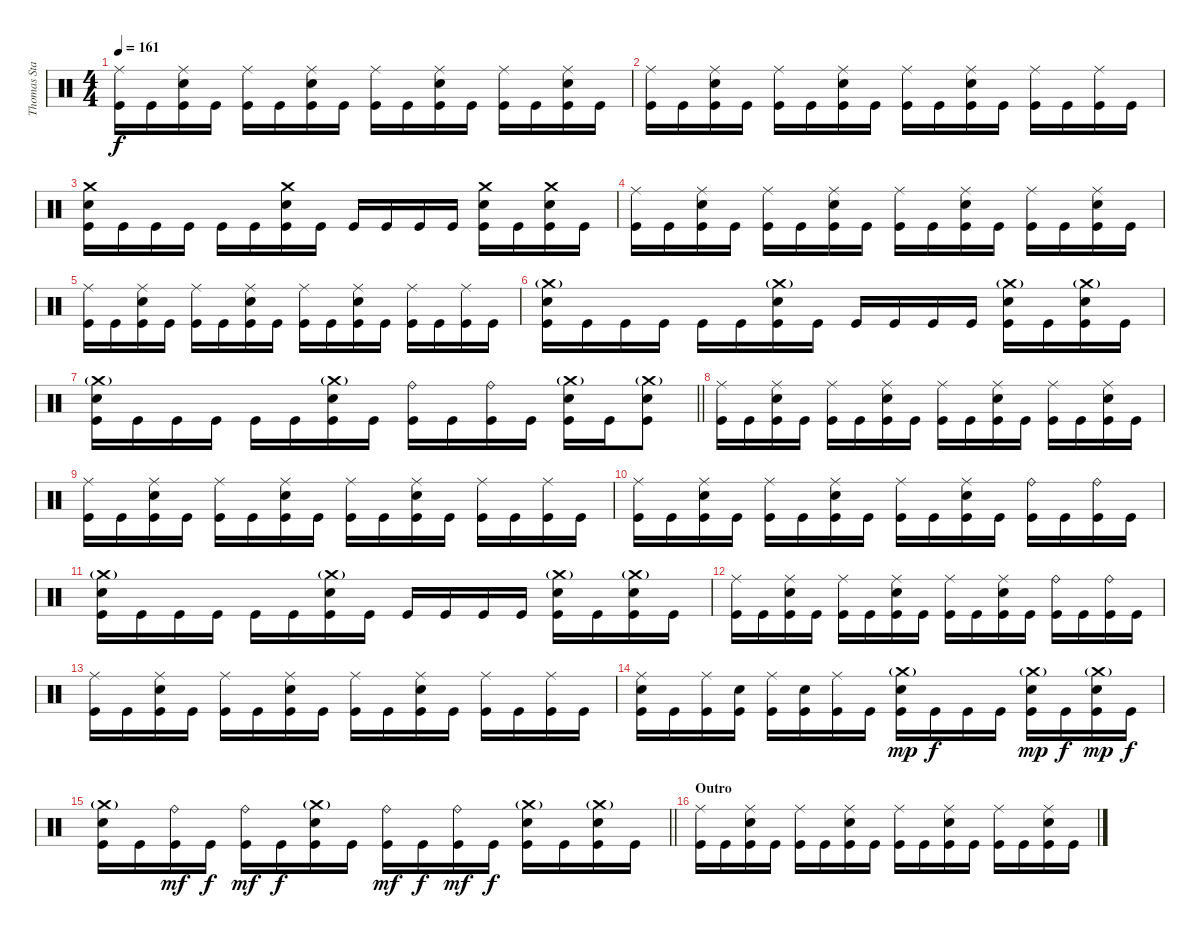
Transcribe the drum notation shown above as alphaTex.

\track ("Thomas Stauch" "Thomas Sta") {instrument percussion}
\staff {score}
\articulation defaults
\ts (4 4)
\tempo 161
\clef neutral
\ks c
("Ride (middle)" "Kick (hit)").16{dy f} "Kick (hit)".16 ("Ride (middle)" "Electric Snare (hit)" "Kick (hit)").16 "Kick (hit)".16 ("Ride (middle)" "Kick (hit)").16 "Kick (hit)".16 ("Ride (middle)" "Electric Snare (hit)" "Kick (hit)").16 "Kick (hit)".16 ("Ride (middle)" "Kick (hit)").16 "Kick (hit)".16 ("Ride (middle)" "Electric Snare (hit)" "Kick (hit)").16 "Kick (hit)".16 ("Ride (middle)" "Kick (hit)").16 "Kick (hit)".16 ("Ride (middle)" "Electric Snare (hit)" "Kick (hit)").16 "Kick (hit)".16 |
("Ride (middle)" "Kick (hit)").16 "Kick (hit)".16 ("Ride (middle)" "Electric Snare (hit)" "Kick (hit)").16 "Kick (hit)".16 ("Ride (middle)" "Kick (hit)").16 "Kick (hit)".16 ("Ride (middle)" "Electric Snare (hit)" "Kick (hit)").16 "Kick (hit)".16 ("Ride (middle)" "Kick (hit)").16 "Kick (hit)".16 ("Ride (middle)" "Electric Snare (hit)" "Kick (hit)").16 "Kick (hit)".16 ("Ride (middle)" "Kick (hit)").16 "Kick (hit)".16 ("Ride (middle)" "Kick (hit)").16 "Kick (hit)".16 |
("Crash medium (hit)" "Electric Snare (hit)" "Kick (hit)").16 "Kick (hit)".16 "Kick (hit)".16 "Kick (hit)".16 "Kick (hit)".16 "Kick (hit)".16 ("Crash medium (hit)" "Electric Snare (hit)" "Kick (hit)").16 "Kick (hit)".16 "Kick (hit)".16 "Kick (hit)".16 "Kick (hit)".16 "Kick (hit)".16 ("Crash medium (hit)" "Electric Snare (hit)" "Kick (hit)").16 "Kick (hit)".16 ("Crash medium (hit)" "Electric Snare (hit)" "Kick (hit)").16 "Kick (hit)".16 |
("Ride (middle)" "Kick (hit)").16 "Kick (hit)".16 ("Ride (middle)" "Electric Snare (hit)" "Kick (hit)").16 "Kick (hit)".16 ("Ride (middle)" "Kick (hit)").16 "Kick (hit)".16 ("Ride (middle)" "Electric Snare (hit)" "Kick (hit)").16 "Kick (hit)".16 ("Ride (middle)" "Kick (hit)").16 "Kick (hit)".16 ("Ride (middle)" "Electric Snare (hit)" "Kick (hit)").16 "Kick (hit)".16 ("Ride (middle)" "Kick (hit)").16 "Kick (hit)".16 ("Ride (middle)" "Electric Snare (hit)" "Kick (hit)").16 "Kick (hit)".16 |
("Ride (middle)" "Kick (hit)").16 "Kick (hit)".16 ("Ride (middle)" "Electric Snare (hit)" "Kick (hit)").16 "Kick (hit)".16 ("Ride (middle)" "Kick (hit)").16 "Kick (hit)".16 ("Ride (middle)" "Electric Snare (hit)" "Kick (hit)").16 "Kick (hit)".16 ("Ride (middle)" "Kick (hit)").16 "Kick (hit)".16 ("Ride (middle)" "Electric Snare (hit)" "Kick (hit)").16 "Kick (hit)".16 ("Ride (middle)" "Kick (hit)").16 "Kick (hit)".16 ("Ride (middle)" "Kick (hit)").16 "Kick (hit)".16 |
("Crash medium (hit)"{g} "Electric Snare (hit)" "Kick (hit)").16 "Kick (hit)".16 "Kick (hit)".16 "Kick (hit)".16 "Kick (hit)".16 "Kick (hit)".16 ("Crash medium (hit)"{g} "Electric Snare (hit)" "Kick (hit)").16 "Kick (hit)".16 "Kick (hit)".16 "Kick (hit)".16 "Kick (hit)".16 "Kick (hit)".16 ("Crash medium (hit)"{g} "Electric Snare (hit)" "Kick (hit)").16 "Kick (hit)".16 ("Crash medium (hit)"{g} "Electric Snare (hit)" "Kick (hit)").16 "Kick (hit)".16 |
\barLineRight lightlight
("Crash medium (hit)"{g} "Electric Snare (hit)" "Kick (hit)").16 "Kick (hit)".16 "Kick (hit)".16 "Kick (hit)".16 "Kick (hit)".16 "Kick (hit)".16 ("Crash medium (hit)"{g} "Electric Snare (hit)" "Kick (hit)").16 "Kick (hit)".16 ("Ride (bell)" "Kick (hit)").16 "Kick (hit)".16 ("Ride (bell)" "Kick (hit)").16 "Kick (hit)".16 ("Crash medium (hit)"{g} "Electric Snare (hit)" "Kick (hit)").16 "Kick (hit)".16 ("Crash medium (hit)"{g} "Electric Snare (hit)" "Kick (hit)").8 |
("Ride (middle)" "Kick (hit)").16 "Kick (hit)".16 ("Ride (middle)" "Electric Snare (hit)" "Kick (hit)").16 "Kick (hit)".16 ("Ride (middle)" "Kick (hit)").16 "Kick (hit)".16 ("Ride (middle)" "Electric Snare (hit)" "Kick (hit)").16 "Kick (hit)".16 ("Ride (middle)" "Kick (hit)").16 "Kick (hit)".16 ("Ride (middle)" "Electric Snare (hit)" "Kick (hit)").16 "Kick (hit)".16 ("Ride (middle)" "Kick (hit)").16 "Kick (hit)".16 ("Ride (middle)" "Electric Snare (hit)" "Kick (hit)").16 "Kick (hit)".16 |
("Ride (middle)" "Kick (hit)").16 "Kick (hit)".16 ("Ride (middle)" "Electric Snare (hit)" "Kick (hit)").16 "Kick (hit)".16 ("Ride (middle)" "Kick (hit)").16 "Kick (hit)".16 ("Ride (middle)" "Electric Snare (hit)" "Kick (hit)").16 "Kick (hit)".16 ("Ride (middle)" "Kick (hit)").16 "Kick (hit)".16 ("Ride (middle)" "Electric Snare (hit)" "Kick (hit)").16 "Kick (hit)".16 ("Ride (middle)" "Kick (hit)").16 "Kick (hit)".16 ("Ride (middle)" "Kick (hit)").16 "Kick (hit)".16 |
("Ride (middle)" "Kick (hit)").16 "Kick (hit)".16 ("Ride (middle)" "Electric Snare (hit)" "Kick (hit)").16 "Kick (hit)".16 ("Ride (middle)" "Kick (hit)").16 "Kick (hit)".16 ("Ride (middle)" "Electric Snare (hit)" "Kick (hit)").16 "Kick (hit)".16 ("Ride (middle)" "Kick (hit)").16 "Kick (hit)".16 ("Ride (middle)" "Electric Snare (hit)" "Kick (hit)").16 "Kick (hit)".16 ("Ride (bell)" "Kick (hit)").16 "Kick (hit)".16 ("Ride (bell)" "Kick (hit)").16 "Kick (hit)".16 |
("Crash medium (hit)"{g} "Electric Snare (hit)" "Kick (hit)").16 "Kick (hit)".16 "Kick (hit)".16 "Kick (hit)".16 "Kick (hit)".16 "Kick (hit)".16 ("Crash medium (hit)"{g} "Electric Snare (hit)" "Kick (hit)").16 "Kick (hit)".16 "Kick (hit)".16 "Kick (hit)".16 "Kick (hit)".16 "Kick (hit)".16 ("Crash medium (hit)"{g} "Electric Snare (hit)" "Kick (hit)").16 "Kick (hit)".16 ("Crash medium (hit)"{g} "Electric Snare (hit)" "Kick (hit)").16 "Kick (hit)".16 |
("Ride (middle)" "Kick (hit)").16 "Kick (hit)".16 ("Ride (middle)" "Electric Snare (hit)" "Kick (hit)").16 "Kick (hit)".16 ("Ride (middle)" "Kick (hit)").16 "Kick (hit)".16 ("Ride (middle)" "Electric Snare (hit)" "Kick (hit)").16 "Kick (hit)".16 ("Ride (middle)" "Kick (hit)").16 "Kick (hit)".16 ("Ride (middle)" "Electric Snare (hit)" "Kick (hit)").16 "Kick (hit)".16 ("Ride (bell)" "Kick (hit)").16 "Kick (hit)".16 ("Ride (bell)" "Kick (hit)").16 "Kick (hit)".16 |
("Ride (middle)" "Kick (hit)").16 "Kick (hit)".16 ("Ride (middle)" "Electric Snare (hit)" "Kick (hit)").16 "Kick (hit)".16 ("Ride (middle)" "Kick (hit)").16 "Kick (hit)".16 ("Ride (middle)" "Electric Snare (hit)" "Kick (hit)").16 "Kick (hit)".16 ("Ride (middle)" "Kick (hit)").16 "Kick (hit)".16 ("Ride (middle)" "Electric Snare (hit)" "Kick (hit)").16 "Kick (hit)".16 ("Ride (middle)" "Kick (hit)").16 "Kick (hit)".16 ("Ride (middle)" "Kick (hit)").16 "Kick (hit)".16 |
("Ride (middle)" "Electric Snare (hit)" "Kick (hit)").16 "Kick (hit)".16 ("Ride (middle)" "Kick (hit)").16 ("Electric Snare (hit)" "Kick (hit)").16 ("Ride (middle)" "Kick (hit)").16 ("Electric Snare (hit)" "Kick (hit)").16 ("Ride (middle)" "Kick (hit)").16 "Kick (hit)".16 ("Crash medium (hit)"{g} "Electric Snare (hit)" "Kick (hit)").16{dy mp} "Kick (hit)".16{dy f} "Kick (hit)".16 "Kick (hit)".16 ("Crash medium (hit)"{g} "Electric Snare (hit)" "Kick (hit)").16{dy mp} "Kick (hit)".16{dy f} ("Crash medium (hit)"{g} "Electric Snare (hit)" "Kick (hit)").16{dy mp} "Kick (hit)".16{dy f} |
\barLineRight lightlight
("Crash medium (hit)"{g} "Electric Snare (hit)" "Kick (hit)").16 "Kick (hit)".16 ("Ride (bell)" "Kick (hit)").16{dy mf} "Kick (hit)".16{dy f} ("Ride (bell)" "Kick (hit)").16{dy mf} "Kick (hit)".16{dy f} ("Crash medium (hit)"{g} "Electric Snare (hit)" "Kick (hit)").16 "Kick (hit)".16 ("Ride (bell)" "Kick (hit)").16{dy mf} "Kick (hit)".16{dy f} ("Ride (bell)" "Kick (hit)").16{dy mf} "Kick (hit)".16{dy f} ("Crash medium (hit)"{g} "Electric Snare (hit)" "Kick (hit)").16 "Kick (hit)".16 ("Crash medium (hit)"{g} "Electric Snare (hit)" "Kick (hit)").16 "Kick (hit)".16 |
\section ("" "Outro")
("Ride (middle)" "Kick (hit)").16 "Kick (hit)".16 ("Ride (middle)" "Electric Snare (hit)" "Kick (hit)").16 "Kick (hit)".16 ("Ride (middle)" "Kick (hit)").16 "Kick (hit)".16 ("Ride (middle)" "Electric Snare (hit)" "Kick (hit)").16 "Kick (hit)".16 ("Ride (middle)" "Kick (hit)").16 "Kick (hit)".16 ("Ride (middle)" "Electric Snare (hit)" "Kick (hit)").16 "Kick (hit)".16 ("Ride (middle)" "Kick (hit)").16 "Kick (hit)".16 ("Ride (middle)" "Electric Snare (hit)" "Kick (hit)").16 "Kick (hit)".16
